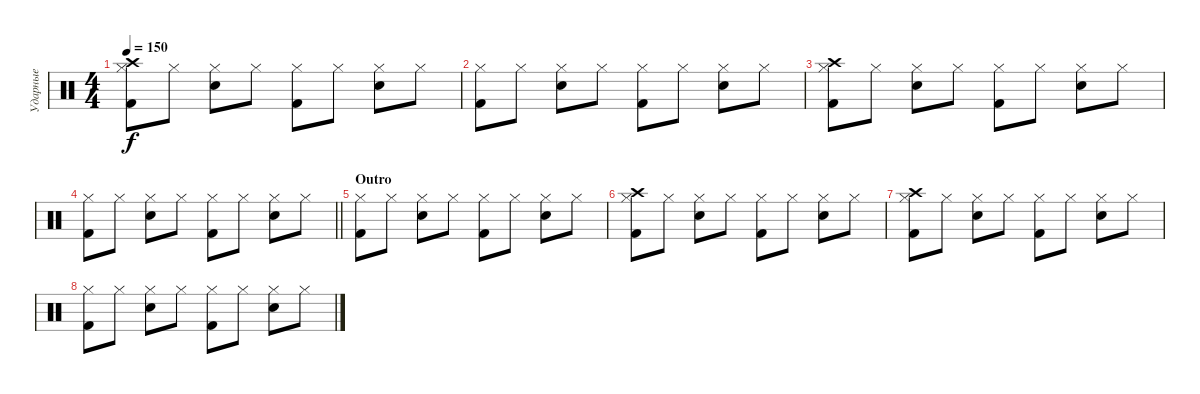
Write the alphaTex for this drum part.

\track ("Ударные" "Ударные") {instrument percussion}
\staff {score}
\articulation defaults
\ts (4 4)
\tempo 150
\clef neutral
\ks c
("Crash high (hit)" "Hi-Hat (closed)" "Kick (hit) 2").8{dy f} "Hi-Hat (closed)".8 ("Hi-Hat (closed)" "Electric Snare (hit)").8 "Hi-Hat (closed)".8 ("Hi-Hat (closed)" "Kick (hit) 2").8 "Hi-Hat (closed)".8 ("Hi-Hat (closed)" "Electric Snare (hit)").8 "Hi-Hat (closed)".8 |
("Hi-Hat (closed)" "Kick (hit) 2").8 "Hi-Hat (closed)".8 ("Hi-Hat (closed)" "Electric Snare (hit)").8 "Hi-Hat (closed)".8 ("Hi-Hat (closed)" "Kick (hit) 2").8 "Hi-Hat (closed)".8 ("Hi-Hat (closed)" "Electric Snare (hit)").8 "Hi-Hat (closed)".8 |
("Crash high (hit)" "Hi-Hat (closed)" "Kick (hit) 2").8 "Hi-Hat (closed)".8 ("Hi-Hat (closed)" "Electric Snare (hit)").8 "Hi-Hat (closed)".8 ("Hi-Hat (closed)" "Kick (hit) 2").8 "Hi-Hat (closed)".8 ("Hi-Hat (closed)" "Electric Snare (hit)").8 "Hi-Hat (closed)".8 |
\barLineRight lightlight
("Hi-Hat (closed)" "Kick (hit) 2").8 "Hi-Hat (closed)".8 ("Hi-Hat (closed)" "Electric Snare (hit)").8 "Hi-Hat (closed)".8 ("Hi-Hat (closed)" "Kick (hit) 2").8 "Hi-Hat (closed)".8 ("Hi-Hat (closed)" "Electric Snare (hit)").8 "Hi-Hat (closed)".8 |
\section ("" "Outro")
("Hi-Hat (closed)" "Kick (hit) 2").8 "Hi-Hat (closed)".8 ("Hi-Hat (closed)" "Electric Snare (hit)").8 "Hi-Hat (closed)".8 ("Hi-Hat (closed)" "Kick (hit) 2").8 "Hi-Hat (closed)".8 ("Hi-Hat (closed)" "Electric Snare (hit)").8 "Hi-Hat (closed)".8 |
("Crash high (hit)" "Hi-Hat (closed)" "Kick (hit) 2").8 "Hi-Hat (closed)".8 ("Hi-Hat (closed)" "Electric Snare (hit)").8 "Hi-Hat (closed)".8 ("Hi-Hat (closed)" "Kick (hit) 2").8 "Hi-Hat (closed)".8 ("Hi-Hat (closed)" "Electric Snare (hit)").8 "Hi-Hat (closed)".8 |
("Crash high (hit)" "Hi-Hat (closed)" "Kick (hit) 2").8 "Hi-Hat (closed)".8 ("Hi-Hat (closed)" "Electric Snare (hit)").8 "Hi-Hat (closed)".8 ("Hi-Hat (closed)" "Kick (hit) 2").8 "Hi-Hat (closed)".8 ("Hi-Hat (closed)" "Electric Snare (hit)").8 "Hi-Hat (closed)".8 |
("Hi-Hat (closed)" "Kick (hit) 2").8 "Hi-Hat (closed)".8 ("Hi-Hat (closed)" "Electric Snare (hit)").8 "Hi-Hat (closed)".8 ("Hi-Hat (closed)" "Kick (hit) 2").8 "Hi-Hat (closed)".8 ("Hi-Hat (closed)" "Electric Snare (hit)").8 "Hi-Hat (closed)".8
